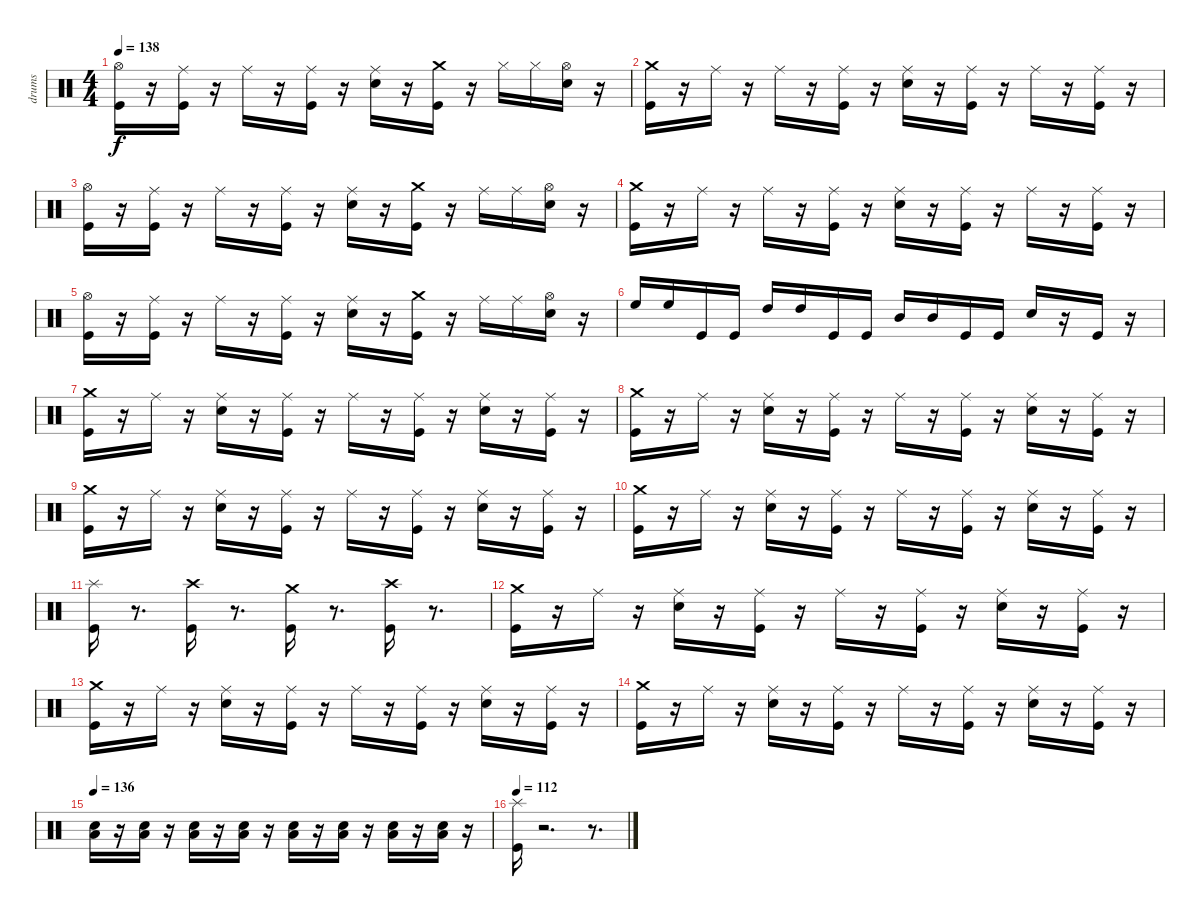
\track ("drums" "drums") {instrument percussion}
\staff {score}
\articulation defaults
\ts (4 4)
\tempo 138
\clef neutral
\ks c
("Kick (hit)" "Hi-Hat (open)").16{dy f} r.16 ("Kick (hit)" "Ride (middle)").16 r.16 "Ride (middle)".16 r.16 ("Kick (hit)" "Ride (middle)").16 r.16 ("Electric Snare (hit)" "Ride (middle)").16 r.16 ("Kick (hit)" "Crash medium (hit)").16 r.16 "Hi-Hat (closed)".16 "Hi-Hat (closed)".16 ("Electric Snare (hit)" "Hi-Hat (open)").16 r.16 |
("Crash medium (hit)" "Kick (hit)").16 r.16 "Ride (middle)".16 r.16 "Ride (middle)".16 r.16 ("Ride (middle)" "Kick (hit)").16 r.16 ("Ride (middle)" "Snare (hit) 2").16 r.16 ("Ride (middle)" "Kick (hit)").16 r.16 "Ride (middle)".16 r.16 ("Ride (middle)" "Kick (hit)").16 r.16 |
("Kick (hit)" "Hi-Hat (open)").16 r.16 ("Kick (hit)" "Ride (middle)").16 r.16 "Ride (middle)".16 r.16 ("Kick (hit)" "Ride (middle)").16 r.16 ("Electric Snare (hit)" "Ride (middle)").16 r.16 ("Kick (hit)" "Crash medium (hit)").16 r.16 "Ride (middle)".16 "Ride (middle)".16 ("Electric Snare (hit)" "Hi-Hat (open)").16 r.16 |
("Crash medium (hit)" "Kick (hit)").16 r.16 "Ride (middle)".16 r.16 "Ride (middle)".16 r.16 ("Ride (middle)" "Kick (hit)").16 r.16 ("Ride (middle)" "Snare (hit) 2").16 r.16 ("Ride (middle)" "Kick (hit)").16 r.16 "Ride (middle)".16 r.16 ("Ride (middle)" "Kick (hit)").16 r.16 |
("Kick (hit)" "Hi-Hat (open)").16 r.16 ("Kick (hit)" "Ride (middle)").16 r.16 "Ride (middle)".16 r.16 ("Kick (hit)" "Ride (middle)").16 r.16 ("Electric Snare (hit)" "Ride (middle)").16 r.16 ("Kick (hit)" "Crash medium (hit)").16 r.16 "Ride (middle)".16 "Ride (middle)".16 ("Electric Snare (hit)" "Hi-Hat (open)").16 r.16 |
"High Floor Tom (hit)".16 "High Floor Tom (hit)".16 "Kick (hit)".16 "Kick (hit)".16 "High Tom (hit)".16 "High Tom (hit)".16 "Kick (hit)".16 "Kick (hit)".16 "Mid Tom (hit)".16 "Mid Tom (hit)".16 "Kick (hit)".16 "Kick (hit)".16 "Electric Snare (hit)".16 r.16 "Kick (hit)".16 r.16 |
("Crash medium (hit)" "Kick (hit)").16 r.16 "Ride (middle)".16 r.16 ("Ride (middle)" "Electric Snare (hit)").16 r.16 ("Ride (middle)" "Kick (hit)").16 r.16 "Ride (middle)".16 r.16 ("Ride (middle)" "Kick (hit)").16 r.16 ("Ride (middle)" "Electric Snare (hit)").16 r.16 ("Ride (middle)" "Kick (hit)").16 r.16 |
("Crash medium (hit)" "Kick (hit)").16 r.16 "Ride (middle)".16 r.16 ("Ride (middle)" "Electric Snare (hit)").16 r.16 ("Ride (middle)" "Kick (hit)").16 r.16 "Ride (middle)".16 r.16 ("Ride (middle)" "Kick (hit)").16 r.16 ("Ride (middle)" "Electric Snare (hit)").16 r.16 ("Ride (middle)" "Kick (hit)").16 r.16 |
("Crash medium (hit)" "Kick (hit)").16 r.16 "Ride (middle)".16 r.16 ("Ride (middle)" "Electric Snare (hit)").16 r.16 ("Ride (middle)" "Kick (hit)").16 r.16 "Ride (middle)".16 r.16 ("Ride (middle)" "Kick (hit)").16 r.16 ("Ride (middle)" "Electric Snare (hit)").16 r.16 ("Ride (middle)" "Kick (hit)").16 r.16 |
("Crash medium (hit)" "Kick (hit)").16 r.16 "Ride (middle)".16 r.16 ("Ride (middle)" "Electric Snare (hit)").16 r.16 ("Ride (middle)" "Kick (hit)").16 r.16 "Ride (middle)".16 r.16 ("Ride (middle)" "Kick (hit)").16 r.16 ("Ride (middle)" "Electric Snare (hit)").16 r.16 ("Ride (middle)" "Kick (hit)").16 r.16 |
("Splash (hit)" "Kick (hit)").16 r.8{d} ("Crash high (hit)" "Kick (hit)").16 r.8{d} ("Crash medium (hit)" "Kick (hit)").16 r.8{d} ("Crash high (hit)" "Kick (hit)").16 r.8{d} |
("Crash medium (hit)" "Kick (hit)").16 r.16 "Ride (middle)".16 r.16 ("Ride (middle)" "Electric Snare (hit)").16 r.16 ("Ride (middle)" "Kick (hit)").16 r.16 "Ride (middle)".16 r.16 ("Ride (middle)" "Kick (hit)").16 r.16 ("Ride (middle)" "Electric Snare (hit)").16 r.16 ("Ride (middle)" "Kick (hit)").16 r.16 |
("Crash medium (hit)" "Kick (hit)").16 r.16 "Ride (middle)".16 r.16 ("Ride (middle)" "Electric Snare (hit)").16 r.16 ("Ride (middle)" "Kick (hit)").16 r.16 "Ride (middle)".16 r.16 ("Ride (middle)" "Kick (hit)").16 r.16 ("Ride (middle)" "Electric Snare (hit)").16 r.16 ("Ride (middle)" "Kick (hit)").16 r.16 |
("Crash medium (hit)" "Kick (hit)").16 r.16 "Ride (middle)".16 r.16 ("Ride (middle)" "Electric Snare (hit)").16 r.16 ("Ride (middle)" "Kick (hit)").16 r.16 "Ride (middle)".16 r.16 ("Ride (middle)" "Kick (hit)").16 r.16 ("Ride (middle)" "Electric Snare (hit)").16 r.16 ("Ride (middle)" "Kick (hit)").16 r.16 |
\tempo 136
("Low Floor Tom (hit)" "Electric Snare (hit)").16 r.16 ("Low Floor Tom (hit)" "Electric Snare (hit)").16 r.16 ("Low Floor Tom (hit)" "Electric Snare (hit)").16 r.16 ("Low Floor Tom (hit)" "Electric Snare (hit)").16 r.16 ("Low Floor Tom (hit)" "Electric Snare (hit)").16 r.16 ("Low Floor Tom (hit)" "Electric Snare (hit)").16 r.16 ("Low Floor Tom (hit)" "Electric Snare (hit)").16 r.16 ("Low Floor Tom (hit)" "Electric Snare (hit)").16 r.16 |
\tempo 112
("Splash (hit)" "Kick (hit)").16 r.2{d} r.8{d}
